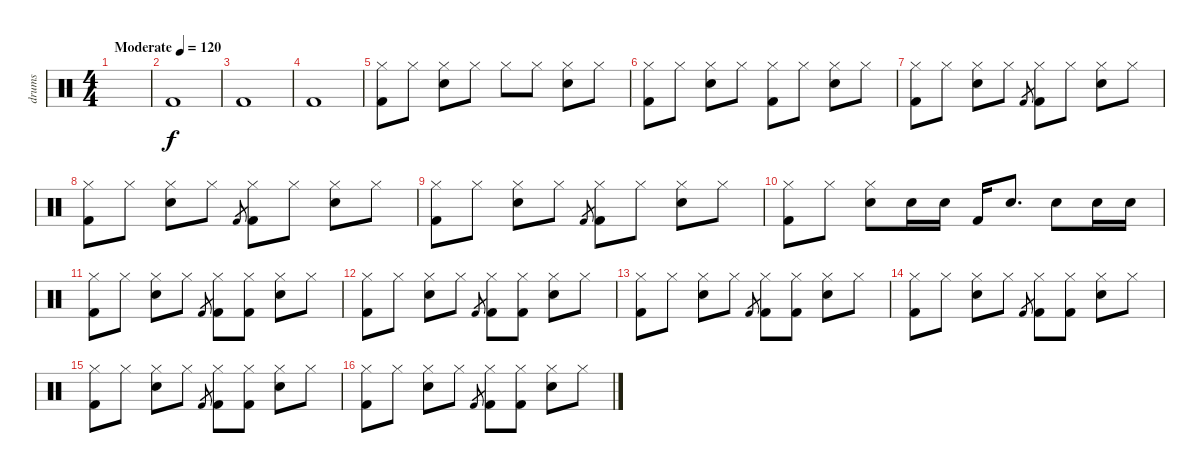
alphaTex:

\track ("drums" "drums") {instrument percussion}
\staff {score}
\articulation defaults
\ts (4 4)
\tempo (120 "Moderate")
\clef neutral
\ks c
|
"Kick (hit) 2".1 |
"Kick (hit) 2".1 |
"Kick (hit) 2".1 |
("Hi-Hat (closed)" "Kick (hit) 2").8 "Hi-Hat (closed)".8 ("Hi-Hat (closed)" "Electric Snare (hit)").8 "Hi-Hat (closed)".8 "Hi-Hat (closed)".8 "Hi-Hat (closed)".8 ("Hi-Hat (closed)" "Electric Snare (hit)").8 "Hi-Hat (closed)".8 |
("Hi-Hat (closed)" "Kick (hit) 2").8 "Hi-Hat (closed)".8 ("Hi-Hat (closed)" "Electric Snare (hit)").8 "Hi-Hat (closed)".8 ("Hi-Hat (closed)" "Kick (hit) 2").8 "Hi-Hat (closed)".8 ("Hi-Hat (closed)" "Electric Snare (hit)").8 "Hi-Hat (closed)".8 |
("Hi-Hat (closed)" "Kick (hit) 2").8 "Hi-Hat (closed)".8 ("Hi-Hat (closed)" "Electric Snare (hit)").8 "Hi-Hat (closed)".8 "Kick (hit) 2".8{gr} ("Hi-Hat (closed)" "Kick (hit) 2").8 "Hi-Hat (closed)".8 ("Hi-Hat (closed)" "Electric Snare (hit)").8 "Hi-Hat (closed)".8 |
("Hi-Hat (closed)" "Kick (hit) 2").8 "Hi-Hat (closed)".8 ("Hi-Hat (closed)" "Electric Snare (hit)").8 "Hi-Hat (closed)".8 "Kick (hit) 2".8{gr} ("Hi-Hat (closed)" "Kick (hit) 2").8 "Hi-Hat (closed)".8 ("Hi-Hat (closed)" "Electric Snare (hit)").8 "Hi-Hat (closed)".8 |
("Hi-Hat (closed)" "Kick (hit) 2").8 "Hi-Hat (closed)".8 ("Hi-Hat (closed)" "Electric Snare (hit)").8 "Hi-Hat (closed)".8 "Kick (hit) 2".8{gr} ("Hi-Hat (closed)" "Kick (hit) 2").8 "Hi-Hat (closed)".8 ("Hi-Hat (closed)" "Electric Snare (hit)").8 "Hi-Hat (closed)".8 |
("Hi-Hat (closed)" "Kick (hit) 2").8 "Hi-Hat (closed)".8 ("Hi-Hat (closed)" "Electric Snare (hit)").8 "Electric Snare (hit)".16 "Electric Snare (hit)".16 "Kick (hit) 2".16 "Electric Snare (hit)".8{d} "Electric Snare (hit)".8 "Electric Snare (hit)".16 "Electric Snare (hit)".16 |
("Hi-Hat (closed)" "Kick (hit) 2").8 "Hi-Hat (closed)".8 ("Hi-Hat (closed)" "Electric Snare (hit)").8 "Hi-Hat (closed)".8 "Kick (hit) 2".8{gr} ("Hi-Hat (closed)" "Kick (hit) 2").8 ("Hi-Hat (closed)" "Kick (hit) 2").8 ("Hi-Hat (closed)" "Electric Snare (hit)").8 "Hi-Hat (closed)".8 |
("Hi-Hat (closed)" "Kick (hit) 2").8 "Hi-Hat (closed)".8 ("Hi-Hat (closed)" "Electric Snare (hit)").8 "Hi-Hat (closed)".8 "Kick (hit) 2".8{gr} ("Hi-Hat (closed)" "Kick (hit) 2").8 ("Hi-Hat (closed)" "Kick (hit) 2").8 ("Hi-Hat (closed)" "Electric Snare (hit)").8 "Hi-Hat (closed)".8 |
("Hi-Hat (closed)" "Kick (hit) 2").8 "Hi-Hat (closed)".8 ("Hi-Hat (closed)" "Electric Snare (hit)").8 "Hi-Hat (closed)".8 "Kick (hit) 2".8{gr} ("Hi-Hat (closed)" "Kick (hit) 2").8 ("Hi-Hat (closed)" "Kick (hit) 2").8 ("Hi-Hat (closed)" "Electric Snare (hit)").8 "Hi-Hat (closed)".8 |
("Hi-Hat (closed)" "Kick (hit) 2").8 "Hi-Hat (closed)".8 ("Hi-Hat (closed)" "Electric Snare (hit)").8 "Hi-Hat (closed)".8 "Kick (hit) 2".8{gr} ("Hi-Hat (closed)" "Kick (hit) 2").8 ("Hi-Hat (closed)" "Kick (hit) 2").8 ("Hi-Hat (closed)" "Electric Snare (hit)").8 "Hi-Hat (closed)".8 |
("Hi-Hat (closed)" "Kick (hit) 2").8 "Hi-Hat (closed)".8 ("Hi-Hat (closed)" "Electric Snare (hit)").8 "Hi-Hat (closed)".8 "Kick (hit) 2".8{gr} ("Hi-Hat (closed)" "Kick (hit) 2").8 ("Hi-Hat (closed)" "Kick (hit) 2").8 ("Hi-Hat (closed)" "Electric Snare (hit)").8 "Hi-Hat (closed)".8 |
("Hi-Hat (closed)" "Kick (hit) 2").8 "Hi-Hat (closed)".8 ("Hi-Hat (closed)" "Electric Snare (hit)").8 "Hi-Hat (closed)".8 "Kick (hit) 2".8{gr} ("Hi-Hat (closed)" "Kick (hit) 2").8 ("Hi-Hat (closed)" "Kick (hit) 2").8 ("Hi-Hat (closed)" "Electric Snare (hit)").8 "Hi-Hat (closed)".8
